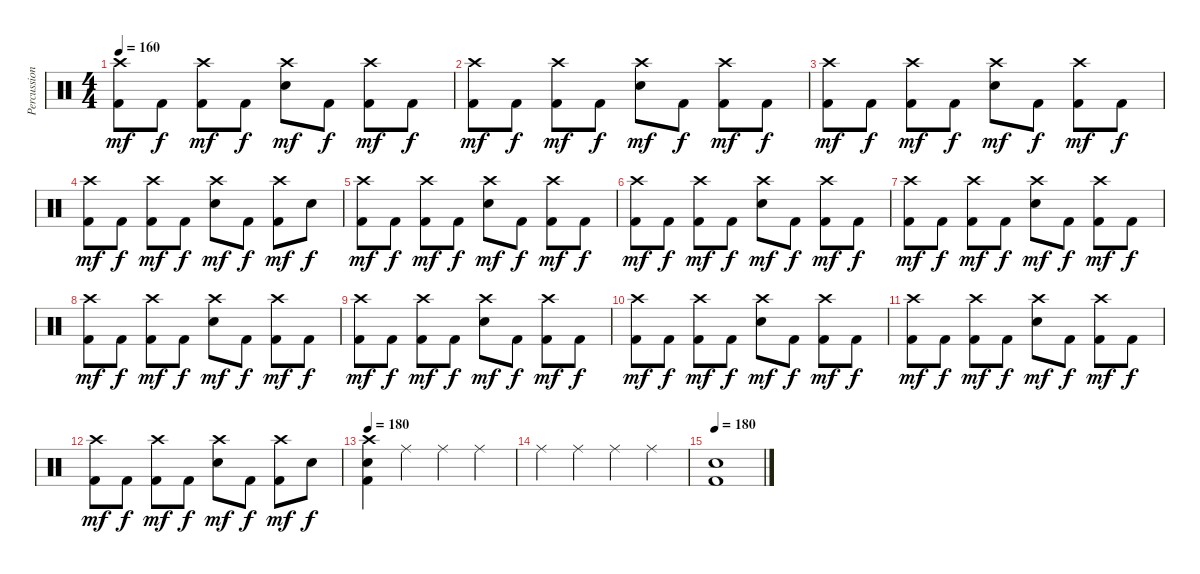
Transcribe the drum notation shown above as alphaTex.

\track ("Percussion" "Percussion") {instrument percussion}
\staff {score}
\articulation defaults
\ts (4 4)
\tempo 160
\clef neutral
\ks c
("Crash high (hit)" "Kick (hit) 2").8{dy mf} "Kick (hit) 2".8{dy f} ("Crash high (hit)" "Kick (hit) 2").8{dy mf} "Kick (hit) 2".8{dy f} ("Crash high (hit)" "Electric Snare (hit)").8{dy mf} "Kick (hit) 2".8{dy f} ("Crash high (hit)" "Kick (hit) 2").8{dy mf} "Kick (hit) 2".8{dy f} |
("Crash high (hit)" "Kick (hit) 2").8{dy mf} "Kick (hit) 2".8{dy f} ("Crash high (hit)" "Kick (hit) 2").8{dy mf} "Kick (hit) 2".8{dy f} ("Crash high (hit)" "Electric Snare (hit)").8{dy mf} "Kick (hit) 2".8{dy f} ("Crash high (hit)" "Kick (hit) 2").8{dy mf} "Kick (hit) 2".8{dy f} |
("Crash high (hit)" "Kick (hit) 2").8{dy mf} "Kick (hit) 2".8{dy f} ("Crash high (hit)" "Kick (hit) 2").8{dy mf} "Kick (hit) 2".8{dy f} ("Crash high (hit)" "Electric Snare (hit)").8{dy mf} "Kick (hit) 2".8{dy f} ("Crash high (hit)" "Kick (hit) 2").8{dy mf} "Kick (hit) 2".8{dy f} |
("Crash high (hit)" "Kick (hit) 2").8{dy mf} "Kick (hit) 2".8{dy f} ("Crash high (hit)" "Kick (hit) 2").8{dy mf} "Kick (hit) 2".8{dy f} ("Crash high (hit)" "Electric Snare (hit)").8{dy mf} "Kick (hit) 2".8{dy f} ("Crash high (hit)" "Kick (hit) 2").8{dy mf} "Electric Snare (hit)".8{dy f} |
("Crash high (hit)" "Kick (hit) 2").8{dy mf} "Kick (hit) 2".8{dy f} ("Crash high (hit)" "Kick (hit) 2").8{dy mf} "Kick (hit) 2".8{dy f} ("Crash high (hit)" "Electric Snare (hit)").8{dy mf} "Kick (hit) 2".8{dy f} ("Crash high (hit)" "Kick (hit) 2").8{dy mf} "Kick (hit) 2".8{dy f} |
("Crash high (hit)" "Kick (hit) 2").8{dy mf} "Kick (hit) 2".8{dy f} ("Crash high (hit)" "Kick (hit) 2").8{dy mf} "Kick (hit) 2".8{dy f} ("Crash high (hit)" "Electric Snare (hit)").8{dy mf} "Kick (hit) 2".8{dy f} ("Crash high (hit)" "Kick (hit) 2").8{dy mf} "Kick (hit) 2".8{dy f} |
("Crash high (hit)" "Kick (hit) 2").8{dy mf} "Kick (hit) 2".8{dy f} ("Crash high (hit)" "Kick (hit) 2").8{dy mf} "Kick (hit) 2".8{dy f} ("Crash high (hit)" "Electric Snare (hit)").8{dy mf} "Kick (hit) 2".8{dy f} ("Crash high (hit)" "Kick (hit) 2").8{dy mf} "Kick (hit) 2".8{dy f} |
("Crash high (hit)" "Kick (hit) 2").8{dy mf} "Kick (hit) 2".8{dy f} ("Crash high (hit)" "Kick (hit) 2").8{dy mf} "Kick (hit) 2".8{dy f} ("Crash high (hit)" "Electric Snare (hit)").8{dy mf} "Kick (hit) 2".8{dy f} ("Crash high (hit)" "Kick (hit) 2").8{dy mf} "Kick (hit) 2".8{dy f} |
("Crash high (hit)" "Kick (hit) 2").8{dy mf} "Kick (hit) 2".8{dy f} ("Crash high (hit)" "Kick (hit) 2").8{dy mf} "Kick (hit) 2".8{dy f} ("Crash high (hit)" "Electric Snare (hit)").8{dy mf} "Kick (hit) 2".8{dy f} ("Crash high (hit)" "Kick (hit) 2").8{dy mf} "Kick (hit) 2".8{dy f} |
("Crash high (hit)" "Kick (hit) 2").8{dy mf} "Kick (hit) 2".8{dy f} ("Crash high (hit)" "Kick (hit) 2").8{dy mf} "Kick (hit) 2".8{dy f} ("Crash high (hit)" "Electric Snare (hit)").8{dy mf} "Kick (hit) 2".8{dy f} ("Crash high (hit)" "Kick (hit) 2").8{dy mf} "Kick (hit) 2".8{dy f} |
("Crash high (hit)" "Kick (hit) 2").8{dy mf} "Kick (hit) 2".8{dy f} ("Crash high (hit)" "Kick (hit) 2").8{dy mf} "Kick (hit) 2".8{dy f} ("Crash high (hit)" "Electric Snare (hit)").8{dy mf} "Kick (hit) 2".8{dy f} ("Crash high (hit)" "Kick (hit) 2").8{dy mf} "Kick (hit) 2".8{dy f} |
("Crash high (hit)" "Kick (hit) 2").8{dy mf} "Kick (hit) 2".8{dy f} ("Crash high (hit)" "Kick (hit) 2").8{dy mf} "Kick (hit) 2".8{dy f} ("Crash high (hit)" "Electric Snare (hit)").8{dy mf} "Kick (hit) 2".8{dy f} ("Crash high (hit)" "Kick (hit) 2").8{dy mf} "Electric Snare (hit)".8{dy f} |
\tempo 180
("Crash high (hit)" "Electric Snare (hit)" "Kick (hit) 2").4 "Ride (middle)".4 "Ride (middle)".4 "Ride (middle)".4 |
"Ride (middle)".4 "Ride (middle)".4 "Ride (middle)".4 "Ride (middle)".4 |
\tempo 180
("Electric Snare (hit)" "Kick (hit) 2").1
